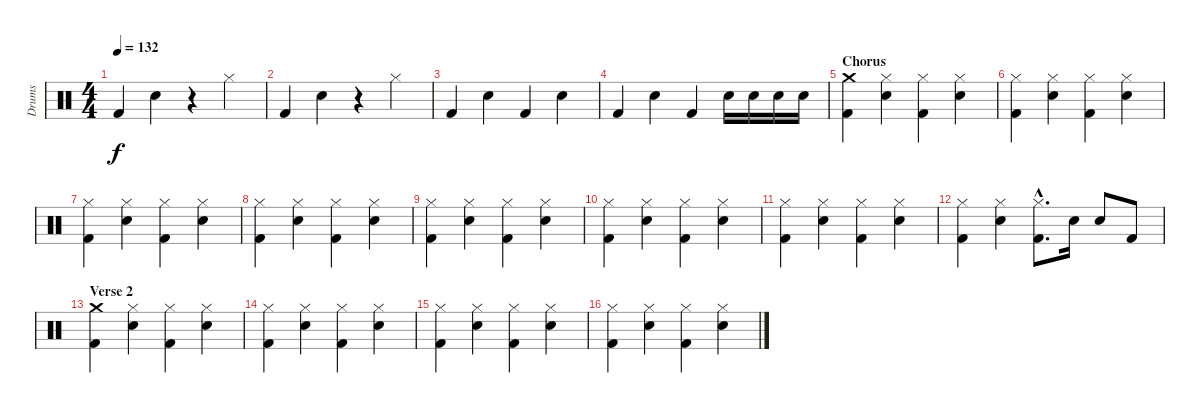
\track ("Drums" "Drums") {instrument percussion}
\staff {score}
\articulation defaults
\ts (4 4)
\tempo 132
\clef neutral
\ks c "Kick (hit) 2".4{dy f} "Electric Snare (hit)".4
r.4 "Hi-Hat (closed)".4 |
"Kick (hit) 2".4 "Electric Snare (hit)".4 r.4 "Hi-Hat (closed)".4 |
"Kick (hit) 2".4 "Electric Snare (hit)".4 "Kick (hit) 2".4 "Electric Snare (hit)".4 |
"Kick (hit) 2".4 "Electric Snare (hit)".4 "Kick (hit) 2".4 "Electric Snare (hit)".16 "Electric Snare (hit)".16 "Electric Snare (hit)".16 "Electric Snare (hit)".16 |
\section ("" "Chorus")
("Crash medium (hit)" "Kick (hit) 2").4 ("Hi-Hat (closed)" "Electric Snare (hit)").4 ("Hi-Hat (closed)" "Kick (hit) 2").4 ("Hi-Hat (closed)" "Electric Snare (hit)").4 |
("Hi-Hat (closed)" "Kick (hit) 2").4 ("Hi-Hat (closed)" "Electric Snare (hit)").4 ("Hi-Hat (closed)" "Kick (hit) 2").4 ("Hi-Hat (closed)" "Electric Snare (hit)").4 |
("Hi-Hat (closed)" "Kick (hit) 2").4 ("Hi-Hat (closed)" "Electric Snare (hit)").4 ("Hi-Hat (closed)" "Kick (hit) 2").4 ("Hi-Hat (closed)" "Electric Snare (hit)").4 |
("Hi-Hat (closed)" "Kick (hit) 2").4 ("Hi-Hat (closed)" "Electric Snare (hit)").4 ("Hi-Hat (closed)" "Kick (hit) 2").4 ("Hi-Hat (closed)" "Electric Snare (hit)").4 |
("Hi-Hat (closed)" "Kick (hit) 2").4 ("Hi-Hat (closed)" "Electric Snare (hit)").4 ("Hi-Hat (closed)" "Kick (hit) 2").4 ("Hi-Hat (closed)" "Electric Snare (hit)").4 |
("Hi-Hat (closed)" "Kick (hit) 2").4 ("Hi-Hat (closed)" "Electric Snare (hit)").4 ("Hi-Hat (closed)" "Kick (hit) 2").4 ("Hi-Hat (closed)" "Electric Snare (hit)").4 |
("Hi-Hat (closed)" "Kick (hit) 2").4 ("Hi-Hat (closed)" "Electric Snare (hit)").4 ("Hi-Hat (closed)" "Kick (hit) 2").4 ("Hi-Hat (closed)" "Electric Snare (hit)").4 |
("Hi-Hat (closed)" "Kick (hit) 2").4 ("Hi-Hat (closed)" "Electric Snare (hit)").4 ("Hi-Hat (closed)"{hac} "Kick (hit) 2"{hac}).8{d} "Electric Snare (hit)".16 "Electric Snare (hit)".8 "Kick (hit) 2".8 |
\section ("" "Verse 2")
("Crash medium (hit)" "Kick (hit) 2").4 ("Hi-Hat (closed)" "Electric Snare (hit)").4 ("Hi-Hat (closed)" "Kick (hit) 2").4 ("Hi-Hat (closed)" "Electric Snare (hit)").4 |
("Hi-Hat (closed)" "Kick (hit) 2").4 ("Hi-Hat (closed)" "Electric Snare (hit)").4 ("Hi-Hat (closed)" "Kick (hit) 2").4 ("Hi-Hat (closed)" "Electric Snare (hit)").4 |
("Hi-Hat (closed)" "Kick (hit) 2").4 ("Hi-Hat (closed)" "Electric Snare (hit)").4 ("Hi-Hat (closed)" "Kick (hit) 2").4 ("Hi-Hat (closed)" "Electric Snare (hit)").4 |
("Hi-Hat (closed)" "Kick (hit) 2").4 ("Hi-Hat (closed)" "Electric Snare (hit)").4 ("Hi-Hat (closed)" "Kick (hit) 2").4 ("Hi-Hat (closed)" "Electric Snare (hit)").4
